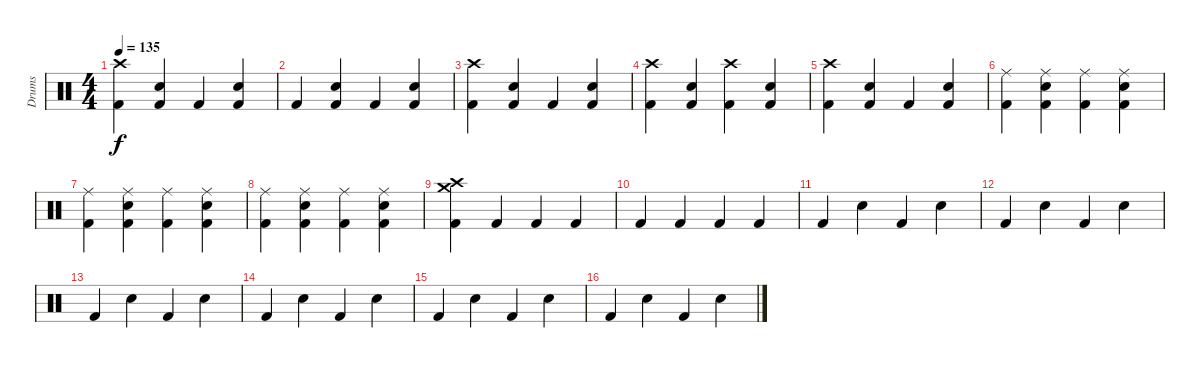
\track ("Drums" "Drums") {instrument percussion}
\staff {score}
\articulation defaults
\ts (4 4)
\tempo 135
\clef neutral
\ks c
("Crash high (hit)" "Kick (hit) 2").4{dy f} ("Snare (hit) 2" "Kick (hit) 2").4 "Kick (hit) 2".4 ("Snare (hit) 2" "Kick (hit) 2").4 |
"Kick (hit) 2".4 ("Snare (hit) 2" "Kick (hit) 2").4 "Kick (hit) 2".4 ("Snare (hit) 2" "Kick (hit) 2").4 |
("Crash high (hit)" "Kick (hit) 2").4 ("Snare (hit) 2" "Kick (hit) 2").4 "Kick (hit) 2".4 ("Snare (hit) 2" "Kick (hit) 2").4 |
("Crash high (hit)" "Kick (hit) 2").4 ("Snare (hit) 2" "Kick (hit) 2").4 ("Crash high (hit)" "Kick (hit) 2").4 ("Snare (hit) 2" "Kick (hit) 2").4 |
("Crash high (hit)" "Kick (hit) 2").4 ("Snare (hit) 2" "Kick (hit) 2").4 "Kick (hit) 2".4 ("Snare (hit) 2" "Kick (hit) 2").4 |
("Ride (middle)" "Kick (hit) 2").4 ("Ride (middle)" "Snare (hit) 2" "Kick (hit) 2").4 ("Ride (middle)" "Kick (hit) 2").4 ("Ride (middle)" "Snare (hit) 2" "Kick (hit) 2").4 |
("Ride (middle)" "Kick (hit) 2").4 ("Ride (middle)" "Snare (hit) 2" "Kick (hit) 2").4 ("Ride (middle)" "Kick (hit) 2").4 ("Ride (middle)" "Snare (hit) 2" "Kick (hit) 2").4 |
("Ride (middle)" "Kick (hit) 2").4 ("Ride (middle)" "Snare (hit) 2" "Kick (hit) 2").4 ("Ride (middle)" "Kick (hit) 2").4 ("Ride (middle)" "Snare (hit) 2" "Kick (hit) 2").4 |
("Crash medium (hit)" "Crash high (hit)" "Kick (hit) 2").4 "Kick (hit) 2".4 "Kick (hit) 2".4 "Kick (hit) 2".4 |
"Kick (hit) 2".4 "Kick (hit) 2".4 "Kick (hit) 2".4 "Kick (hit) 2".4 |
"Kick (hit) 2".4 "Snare (hit) 2".4 "Kick (hit) 2".4 "Snare (hit) 2".4 |
"Kick (hit) 2".4 "Snare (hit) 2".4 "Kick (hit) 2".4 "Snare (hit) 2".4 |
"Kick (hit) 2".4 "Snare (hit) 2".4 "Kick (hit) 2".4 "Snare (hit) 2".4 |
"Kick (hit) 2".4 "Snare (hit) 2".4 "Kick (hit) 2".4 "Snare (hit) 2".4 |
"Kick (hit) 2".4 "Snare (hit) 2".4 "Kick (hit) 2".4 "Snare (hit) 2".4 |
"Kick (hit) 2".4 "Snare (hit) 2".4 "Kick (hit) 2".4 "Snare (hit) 2".4
